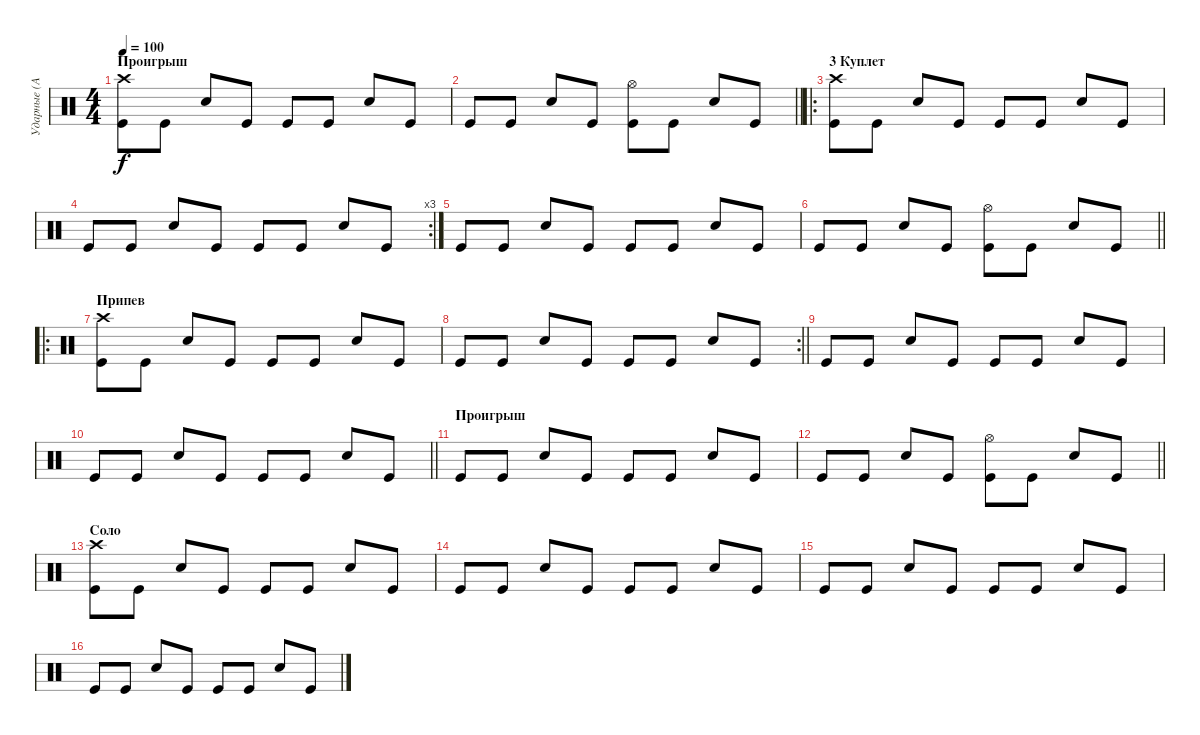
\track ("Ударные (Александр Андрюшкин)" "Ударные (А") {instrument percussion}
\staff {score}
\articulation defaults
\ts (4 4)
\section ("" "Проигрыш")
\tempo 100
\clef neutral
\ks c
("Crash high (hit)" "Kick (hit)").8{dy f} "Kick (hit)".8 "Snare (hit) 2".8 "Kick (hit)".8 "Kick (hit)".8 "Kick (hit)".8 "Snare (hit) 2".8 "Kick (hit)".8 |
\barLineRight lightlight "Kick (hit)".8 "Kick (hit)".8 "Snare (hit) 2".8 "Kick (hit)".8
("Hi-Hat (open)" "Kick (hit)").8 "Kick (hit)".8 "Snare (hit) 2".8 "Kick (hit)".8 |
\ro
\section ("" "3 Куплет")
("Crash high (hit)" "Kick (hit)").8 "Kick (hit)".8 "Snare (hit) 2".8 "Kick (hit)".8 "Kick (hit)".8 "Kick (hit)".8 "Snare (hit) 2".8 "Kick (hit)".8 |
\rc 3 "Kick (hit)".8 "Kick (hit)".8 "Snare (hit) 2".8 "Kick (hit)".8 "Kick (hit)".8 "Kick (hit)".8 "Snare (hit) 2".8 "Kick (hit)".8
|
"Kick (hit)".8 "Kick (hit)".8 "Snare (hit) 2".8 "Kick (hit)".8 "Kick (hit)".8 "Kick (hit)".8 "Snare (hit) 2".8 "Kick (hit)".8 |
\barLineRight lightlight "Kick (hit)".8 "Kick (hit)".8 "Snare (hit) 2".8 "Kick (hit)".8
("Hi-Hat (open)" "Kick (hit)").8 "Kick (hit)".8 "Snare (hit) 2".8 "Kick (hit)".8 |
\ro
\section ("" "Припев")
("Crash high (hit)" "Kick (hit)").8 "Kick (hit)".8 "Snare (hit) 2".8 "Kick (hit)".8 "Kick (hit)".8 "Kick (hit)".8 "Snare (hit) 2".8 "Kick (hit)".8 |
\rc 2
\barLineRight lightlight "Kick (hit)".8 "Kick (hit)".8 "Snare (hit) 2".8 "Kick (hit)".8 "Kick (hit)".8 "Kick (hit)".8 "Snare (hit) 2".8 "Kick (hit)".8
|
"Kick (hit)".8 "Kick (hit)".8 "Snare (hit) 2".8 "Kick (hit)".8 "Kick (hit)".8 "Kick (hit)".8 "Snare (hit) 2".8 "Kick (hit)".8 |
\barLineRight lightlight "Kick (hit)".8 "Kick (hit)".8 "Snare (hit) 2".8 "Kick (hit)".8 "Kick (hit)".8 "Kick (hit)".8 "Snare (hit) 2".8 "Kick (hit)".8
|
\section ("" "Проигрыш")
"Kick (hit)".8 "Kick (hit)".8 "Snare (hit) 2".8 "Kick (hit)".8 "Kick (hit)".8 "Kick (hit)".8 "Snare (hit) 2".8 "Kick (hit)".8 |
\barLineRight lightlight "Kick (hit)".8 "Kick (hit)".8 "Snare (hit) 2".8 "Kick (hit)".8
("Hi-Hat (open)" "Kick (hit)").8 "Kick (hit)".8 "Snare (hit) 2".8 "Kick (hit)".8 |
\section ("" "Соло")
("Crash high (hit)" "Kick (hit)").8 "Kick (hit)".8 "Snare (hit) 2".8 "Kick (hit)".8 "Kick (hit)".8 "Kick (hit)".8 "Snare (hit) 2".8 "Kick (hit)".8 |
"Kick (hit)".8 "Kick (hit)".8 "Snare (hit) 2".8 "Kick (hit)".8 "Kick (hit)".8 "Kick (hit)".8 "Snare (hit) 2".8 "Kick (hit)".8 |
"Kick (hit)".8 "Kick (hit)".8 "Snare (hit) 2".8 "Kick (hit)".8 "Kick (hit)".8 "Kick (hit)".8 "Snare (hit) 2".8 "Kick (hit)".8 |
"Kick (hit)".8 "Kick (hit)".8 "Snare (hit) 2".8 "Kick (hit)".8 "Kick (hit)".8 "Kick (hit)".8 "Snare (hit) 2".8 "Kick (hit)".8
